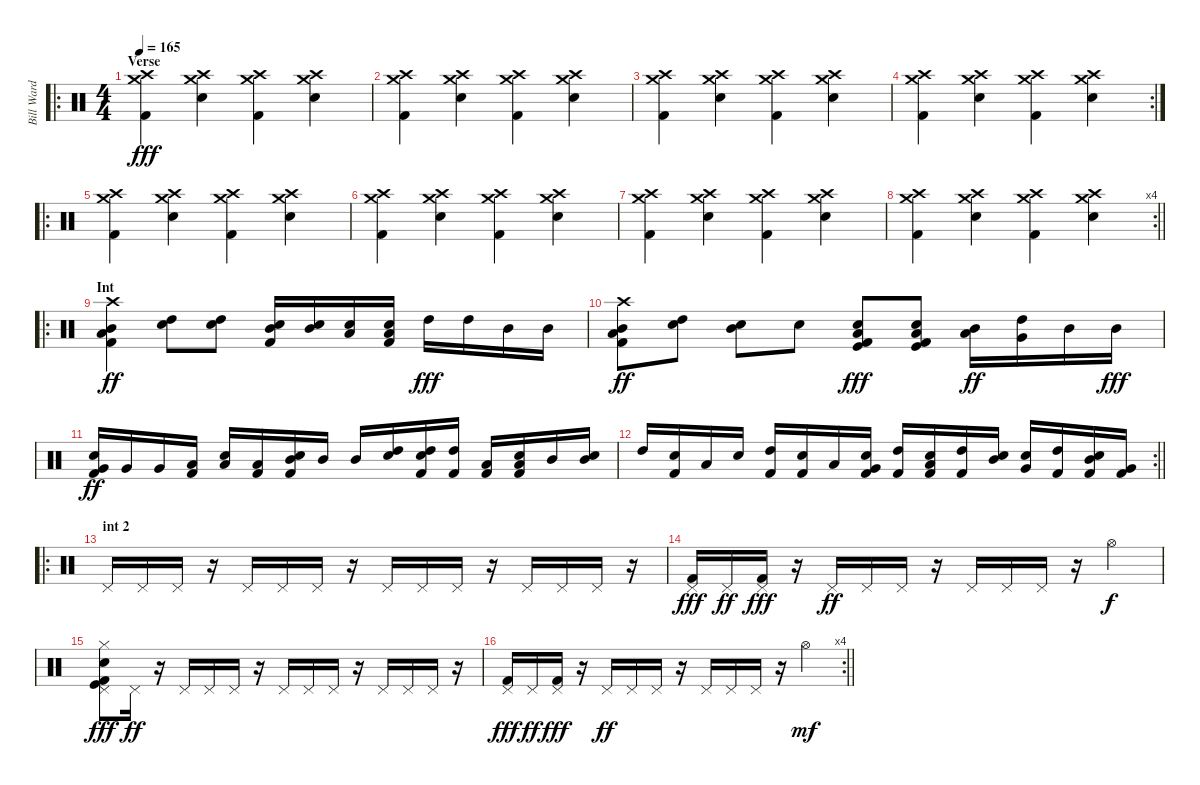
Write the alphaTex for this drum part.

\track ("Bill Ward" "Bill Ward") {instrument percussion}
\staff {score}
\articulation defaults
\ro
\ts (4 4)
\section ("" "Verse")
\tempo 165
\clef neutral
\ks c
("Crash high (hit)" "Crash medium (hit)" "Kick (hit) 2").4{dy fff} ("Crash high (hit)" "Crash medium (hit)" "Snare (hit) 2").4 ("Crash high (hit)" "Crash medium (hit)" "Kick (hit) 2").4 ("Crash high (hit)" "Crash medium (hit)" "Snare (hit) 2").4 |
("Crash high (hit)" "Crash medium (hit)" "Kick (hit) 2").4 ("Crash high (hit)" "Crash medium (hit)" "Snare (hit) 2").4 ("Crash high (hit)" "Crash medium (hit)" "Kick (hit) 2").4 ("Crash high (hit)" "Crash medium (hit)" "Snare (hit) 2").4 |
("Crash high (hit)" "Crash medium (hit)" "Kick (hit) 2").4 ("Crash high (hit)" "Crash medium (hit)" "Snare (hit) 2").4 ("Crash high (hit)" "Crash medium (hit)" "Kick (hit) 2").4 ("Crash high (hit)" "Crash medium (hit)" "Snare (hit) 2").4 |
\rc 2
("Crash high (hit)" "Crash medium (hit)" "Kick (hit) 2").4 ("Crash high (hit)" "Crash medium (hit)" "Snare (hit) 2").4 ("Crash high (hit)" "Crash medium (hit)" "Kick (hit) 2").4 ("Crash high (hit)" "Crash medium (hit)" "Snare (hit) 2").4 |
\ro
("Crash high (hit)" "Crash medium (hit)" "Kick (hit) 2").4 ("Crash high (hit)" "Crash medium (hit)" "Snare (hit) 2").4 ("Crash high (hit)" "Crash medium (hit)" "Kick (hit) 2").4 ("Crash high (hit)" "Crash medium (hit)" "Snare (hit) 2").4 |
("Crash high (hit)" "Crash medium (hit)" "Kick (hit) 2").4 ("Crash high (hit)" "Crash medium (hit)" "Snare (hit) 2").4 ("Crash high (hit)" "Crash medium (hit)" "Kick (hit) 2").4 ("Crash high (hit)" "Crash medium (hit)" "Snare (hit) 2").4 |
("Crash high (hit)" "Crash medium (hit)" "Kick (hit) 2").4 ("Crash high (hit)" "Crash medium (hit)" "Snare (hit) 2").4 ("Crash high (hit)" "Crash medium (hit)" "Kick (hit) 2").4 ("Crash high (hit)" "Crash medium (hit)" "Snare (hit) 2").4 |
\rc 4
\barLineRight lightlight
("Crash high (hit)" "Crash medium (hit)" "Kick (hit) 2").4 ("Crash high (hit)" "Crash medium (hit)" "Snare (hit) 2").4 ("Crash high (hit)" "Crash medium (hit)" "Kick (hit) 2").4 ("Crash high (hit)" "Crash medium (hit)" "Snare (hit) 2").4 |
\ro
\section ("" "Int")
("Crash high (hit)" "Low Tom (hit)" "Mid Tom (hit)" "Kick (hit) 2").4{dy ff} ("High Tom (hit)" "Snare (hit) 2").8 ("High Tom (hit)" "Snare (hit) 2").8 ("Mid Tom (hit)" "Snare (hit) 2" "Kick (hit) 2").16 ("Mid Tom (hit)" "Snare (hit) 2").16 ("Low Tom (hit)" "Snare (hit) 2").16 ("Low Tom (hit)" "Snare (hit) 2" "Kick (hit) 2").16 "High Tom (hit)".16{dy fff} "High Tom (hit)".16 "Mid Tom (hit)".16 "Mid Tom (hit)".16 |
("Crash high (hit)" "Low Tom (hit)" "Mid Tom (hit)" "Kick (hit) 2").8{dy ff} ("High Tom (hit)" "Snare (hit) 2").8 ("Mid Tom (hit)" "Snare (hit) 2").8 "Snare (hit) 2".8 ("Low Tom (hit)" "Snare (hit) 2" "Kick (hit)" "Kick (hit) 2").8{dy fff} ("Low Tom (hit)" "Snare (hit) 2" "Kick (hit)" "Kick (hit) 2").8 ("Low Tom (hit)" "Mid Tom (hit)").16{dy ff} ("Very Low Tom (hit)" "High Tom (hit)").16 "Mid Tom (hit)".16 "Mid Tom (hit)".16{dy fff} |
("Very Low Tom (hit)" "Snare (hit) 2" "Kick (hit) 2").16{dy ff} "Very Low Tom (hit)".16 "Very Low Tom (hit)".16 ("Low Tom (hit)" "Kick (hit) 2").16 ("Low Tom (hit)" "Snare (hit) 2").16 ("Low Tom (hit)" "Kick (hit) 2").16 ("Mid Tom (hit)" "Snare (hit) 2" "Kick (hit) 2").16 "Mid Tom (hit)".16 "Mid Tom (hit)".16 ("High Tom (hit)" "Snare (hit) 2").16 ("High Tom (hit)" "Snare (hit) 2" "Kick (hit) 2").16 ("High Tom (hit)" "Kick (hit) 2").16 ("Low Tom (hit)" "Kick (hit) 2").16 ("Low Tom (hit)" "Snare (hit) 2" "Kick (hit) 2").16 "Mid Tom (hit)".16 ("Mid Tom (hit)" "Snare (hit) 2").16 |
\rc 2
\barLineRight lightlight "High Tom (hit)".16
("Snare (hit) 2" "Kick (hit) 2").16 "Low Tom (hit)".16 "Snare (hit) 2".16 ("High Tom (hit)" "Kick (hit) 2").16 ("Snare (hit) 2" "Kick (hit) 2").16 "Low Tom (hit)".16 ("Snare (hit) 2" "Very Low Tom (hit)" "Kick (hit) 2").16 ("High Tom (hit)" "Kick (hit) 2").16 ("Snare (hit) 2" "Low Tom (hit)" "Kick (hit) 2").16 ("High Tom (hit)" "Kick (hit) 2").16 ("Snare (hit) 2" "Mid Tom (hit)").16 ("Snare (hit) 2" "Very Low Tom (hit)").16 ("High Tom (hit)" "Kick (hit) 2").16 ("Snare (hit) 2" "Mid Tom (hit)" "Kick (hit) 2").16 ("Very Low Tom (hit)" "Kick (hit) 2").16 |
\ro
\section ("" "int 2")
"Pedal Hi-Hat (hit)".16 "Pedal Hi-Hat (hit)".16 "Pedal Hi-Hat (hit)".16 r.16 "Pedal Hi-Hat (hit)".16 "Pedal Hi-Hat (hit)".16 "Pedal Hi-Hat (hit)".16 r.16 "Pedal Hi-Hat (hit)".16 "Pedal Hi-Hat (hit)".16 "Pedal Hi-Hat (hit)".16 r.16 "Pedal Hi-Hat (hit)".16 "Pedal Hi-Hat (hit)".16 "Pedal Hi-Hat (hit)".16 r.16 |
("Pedal Hi-Hat (hit)" "Kick (hit) 2").16{dy fff} "Pedal Hi-Hat (hit)".16{dy ff} ("Pedal Hi-Hat (hit)" "Kick (hit) 2").16{dy fff} r.16 "Pedal Hi-Hat (hit)".16{dy ff} "Pedal Hi-Hat (hit)".16 "Pedal Hi-Hat (hit)".16 r.16 "Pedal Hi-Hat (hit)".16 "Pedal Hi-Hat (hit)".16 "Pedal Hi-Hat (hit)".16 r.16 "Hi-Hat (open)".4{dy f} |
("Hi-Hat (closed)" "Pedal Hi-Hat (hit)" "Snare (hit) 2" "Kick (hit)" "Kick (hit) 2").8{dy fff} "Pedal Hi-Hat (hit)".16{dy ff} r.16 "Pedal Hi-Hat (hit)".16 "Pedal Hi-Hat (hit)".16 "Pedal Hi-Hat (hit)".16 r.16 "Pedal Hi-Hat (hit)".16 "Pedal Hi-Hat (hit)".16 "Pedal Hi-Hat (hit)".16 r.16 "Pedal Hi-Hat (hit)".16 "Pedal Hi-Hat (hit)".16 "Pedal Hi-Hat (hit)".16 r.16 |
\rc 4
\barLineRight lightlight
("Pedal Hi-Hat (hit)" "Kick (hit) 2").16{dy fff} "Pedal Hi-Hat (hit)".16{dy ff} ("Pedal Hi-Hat (hit)" "Kick (hit) 2").16{dy fff} r.16 "Pedal Hi-Hat (hit)".16{dy ff} "Pedal Hi-Hat (hit)".16 "Pedal Hi-Hat (hit)".16 r.16 "Pedal Hi-Hat (hit)".16 "Pedal Hi-Hat (hit)".16 "Pedal Hi-Hat (hit)".16 r.16 "Hi-Hat (open)".4{dy mf}
